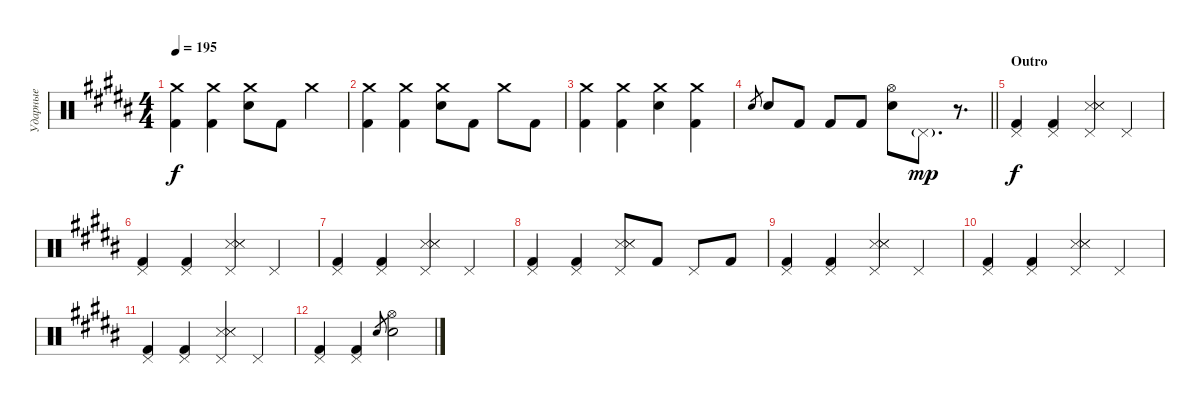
\track ("Ударные" "Ударные") {instrument percussion}
\staff {score}
\articulation defaults
\ts (4 4)
\tempo 195
\clef neutral
\ks b
("Crash medium (hit)" "Kick (hit) 2").4{dy f} ("Crash medium (hit)" "Kick (hit) 2").4 ("Crash medium (hit)" "Electric Snare (hit)").8 "Kick (hit) 2".8 "Crash medium (hit)".4 |
("Crash medium (hit)" "Kick (hit) 2").4 ("Crash medium (hit)" "Kick (hit) 2").4 ("Crash medium (hit)" "Electric Snare (hit)").8 "Kick (hit) 2".8 "Crash medium (hit)".8 "Kick (hit) 2".8 |
("Crash medium (hit)" "Kick (hit) 2").4 ("Crash medium (hit)" "Kick (hit) 2").4 ("Crash medium (hit)" "Electric Snare (hit)").4 ("Crash medium (hit)" "Kick (hit) 2").4 |
\barLineRight lightlight "Electric Snare (hit)".8{gr} "Electric Snare (hit)".8 "Kick (hit) 2".8 "Kick (hit) 2".8 "Kick (hit) 2".8
("Hi-Hat (open)" "Electric Snare (hit)").8 "Pedal Hi-Hat (hit)"{g}.8{d dy mp} r.8{d} |
\section ("" "Outro")
("Pedal Hi-Hat (hit)" "Kick (hit) 2").4{dy f} ("Pedal Hi-Hat (hit)" "Kick (hit) 2").4 ("Pedal Hi-Hat (hit)" "Snare (side stick) 3" "Snare (side stick) 3" "Snare (side stick) 3").4 "Pedal Hi-Hat (hit)".4 |
("Pedal Hi-Hat (hit)" "Kick (hit) 2").4 ("Pedal Hi-Hat (hit)" "Kick (hit) 2").4 ("Pedal Hi-Hat (hit)" "Snare (side stick) 3" "Snare (side stick) 3" "Snare (side stick) 3").4 "Pedal Hi-Hat (hit)".4 |
("Pedal Hi-Hat (hit)" "Kick (hit) 2").4 ("Pedal Hi-Hat (hit)" "Kick (hit) 2").4 ("Pedal Hi-Hat (hit)" "Snare (side stick) 3" "Snare (side stick) 3" "Snare (side stick) 3").4 "Pedal Hi-Hat (hit)".4 |
("Pedal Hi-Hat (hit)" "Kick (hit) 2").4 ("Pedal Hi-Hat (hit)" "Kick (hit) 2").4 ("Pedal Hi-Hat (hit)" "Snare (side stick) 3" "Snare (side stick) 3" "Snare (side stick) 3").8 "Kick (hit) 2".8 "Pedal Hi-Hat (hit)".8 "Kick (hit) 2".8 |
("Pedal Hi-Hat (hit)" "Kick (hit) 2").4 ("Pedal Hi-Hat (hit)" "Kick (hit) 2").4 ("Pedal Hi-Hat (hit)" "Snare (side stick) 3" "Snare (side stick) 3" "Snare (side stick) 3").4 "Pedal Hi-Hat (hit)".4 |
("Pedal Hi-Hat (hit)" "Kick (hit) 2").4 ("Pedal Hi-Hat (hit)" "Kick (hit) 2").4 ("Pedal Hi-Hat (hit)" "Snare (side stick) 3" "Snare (side stick) 3" "Snare (side stick) 3").4 "Pedal Hi-Hat (hit)".4 |
("Pedal Hi-Hat (hit)" "Kick (hit) 2").4 ("Pedal Hi-Hat (hit)" "Kick (hit) 2").4 ("Pedal Hi-Hat (hit)" "Snare (side stick) 3" "Snare (side stick) 3" "Snare (side stick) 3").4 "Pedal Hi-Hat (hit)".4 |
("Pedal Hi-Hat (hit)" "Kick (hit) 2").4 ("Pedal Hi-Hat (hit)" "Kick (hit) 2").4 "Electric Snare (hit)".8{gr} ("Hi-Hat (open)" "Electric Snare (hit)").2
